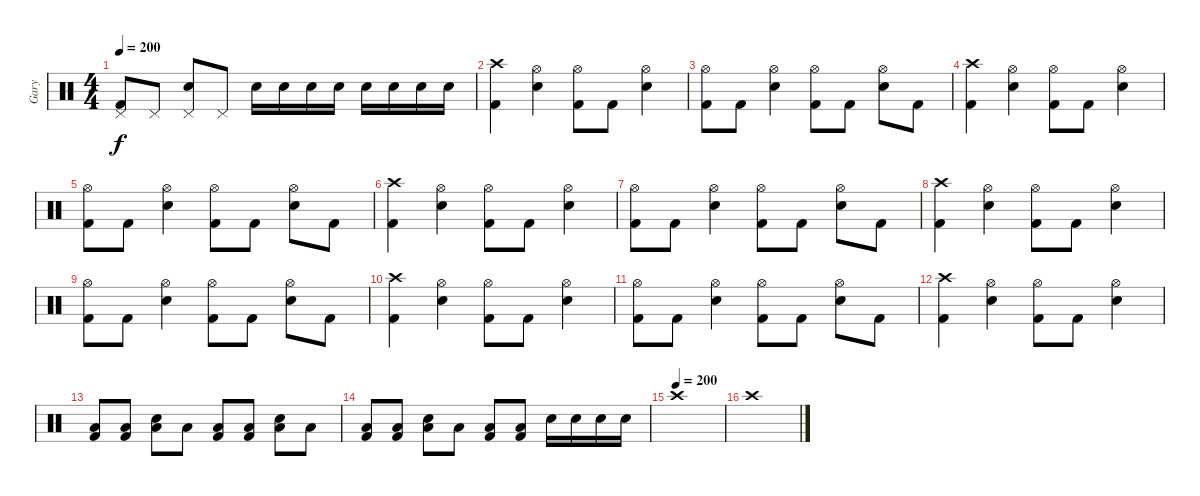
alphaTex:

\track ("Gary" "Gary") {instrument percussion}
\staff {score}
\articulation defaults
\ts (4 4)
\tempo 200
\clef neutral
\ks c
("Pedal Hi-Hat (hit)" "Kick (hit) 2").8{dy f} "Pedal Hi-Hat (hit)".8 ("Pedal Hi-Hat (hit)" "Electric Snare (hit)").8 "Pedal Hi-Hat (hit)".8 "Electric Snare (hit)".16 "Electric Snare (hit)".16 "Electric Snare (hit)".16 "Electric Snare (hit)".16 "Electric Snare (hit)".16 "Electric Snare (hit)".16 "Electric Snare (hit)".16 "Electric Snare (hit)".16 |
("Crash high (hit)" "Kick (hit) 2").4 ("Hi-Hat (open)" "Electric Snare (hit)").4 ("Hi-Hat (open)" "Kick (hit) 2").8 "Kick (hit) 2".8 ("Hi-Hat (open)" "Electric Snare (hit)").4 |
("Hi-Hat (open)" "Kick (hit) 2").8 "Kick (hit) 2".8 ("Hi-Hat (open)" "Electric Snare (hit)").4 ("Hi-Hat (open)" "Kick (hit) 2").8 "Kick (hit) 2".8 ("Hi-Hat (open)" "Electric Snare (hit)").8 "Kick (hit) 2".8 |
("Crash high (hit)" "Kick (hit) 2").4 ("Hi-Hat (open)" "Electric Snare (hit)").4 ("Hi-Hat (open)" "Kick (hit) 2").8 "Kick (hit) 2".8 ("Hi-Hat (open)" "Electric Snare (hit)").4 |
("Hi-Hat (open)" "Kick (hit) 2").8 "Kick (hit) 2".8 ("Hi-Hat (open)" "Electric Snare (hit)").4 ("Hi-Hat (open)" "Kick (hit) 2").8 "Kick (hit) 2".8 ("Hi-Hat (open)" "Electric Snare (hit)").8 "Kick (hit) 2".8 |
("Crash high (hit)" "Kick (hit) 2").4 ("Hi-Hat (open)" "Electric Snare (hit)").4 ("Hi-Hat (open)" "Kick (hit) 2").8 "Kick (hit) 2".8 ("Hi-Hat (open)" "Electric Snare (hit)").4 |
("Hi-Hat (open)" "Kick (hit) 2").8 "Kick (hit) 2".8 ("Hi-Hat (open)" "Electric Snare (hit)").4 ("Hi-Hat (open)" "Kick (hit) 2").8 "Kick (hit) 2".8 ("Hi-Hat (open)" "Electric Snare (hit)").8 "Kick (hit) 2".8 |
("Crash high (hit)" "Kick (hit) 2").4 ("Hi-Hat (open)" "Electric Snare (hit)").4 ("Hi-Hat (open)" "Kick (hit) 2").8 "Kick (hit) 2".8 ("Hi-Hat (open)" "Electric Snare (hit)").4 |
("Hi-Hat (open)" "Kick (hit) 2").8 "Kick (hit) 2".8 ("Hi-Hat (open)" "Electric Snare (hit)").4 ("Hi-Hat (open)" "Kick (hit) 2").8 "Kick (hit) 2".8 ("Hi-Hat (open)" "Electric Snare (hit)").8 "Kick (hit) 2".8 |
("Crash high (hit)" "Kick (hit) 2").4 ("Hi-Hat (open)" "Electric Snare (hit)").4 ("Hi-Hat (open)" "Kick (hit) 2").8 "Kick (hit) 2".8 ("Hi-Hat (open)" "Electric Snare (hit)").4 |
("Hi-Hat (open)" "Kick (hit) 2").8 "Kick (hit) 2".8 ("Hi-Hat (open)" "Electric Snare (hit)").4 ("Hi-Hat (open)" "Kick (hit) 2").8 "Kick (hit) 2".8 ("Hi-Hat (open)" "Electric Snare (hit)").8 "Kick (hit) 2".8 |
("Crash high (hit)" "Kick (hit) 2").4 ("Hi-Hat (open)" "Electric Snare (hit)").4 ("Hi-Hat (open)" "Kick (hit) 2").8 "Kick (hit) 2".8 ("Hi-Hat (open)" "Electric Snare (hit)").4 |
("Low Floor Tom (hit)" "Kick (hit) 2").8 ("Low Floor Tom (hit)" "Kick (hit) 2").8 ("Low Floor Tom (hit)" "Electric Snare (hit)").8 "Low Floor Tom (hit)".8 ("Low Floor Tom (hit)" "Kick (hit) 2").8 ("Low Floor Tom (hit)" "Kick (hit) 2").8 ("Low Floor Tom (hit)" "Electric Snare (hit)").8 "Low Floor Tom (hit)".8 |
("Low Floor Tom (hit)" "Kick (hit) 2").8 ("Low Floor Tom (hit)" "Kick (hit) 2").8 ("Low Floor Tom (hit)" "Electric Snare (hit)").8 "Low Floor Tom (hit)".8 ("Low Floor Tom (hit)" "Kick (hit) 2").8 ("Low Floor Tom (hit)" "Kick (hit) 2").8 "Electric Snare (hit)".16 "Electric Snare (hit)".16 "Electric Snare (hit)".16 "Electric Snare (hit)".16 |
\tempo (200)
"Crash high (hit)".1 |
"Crash high (hit)".1
